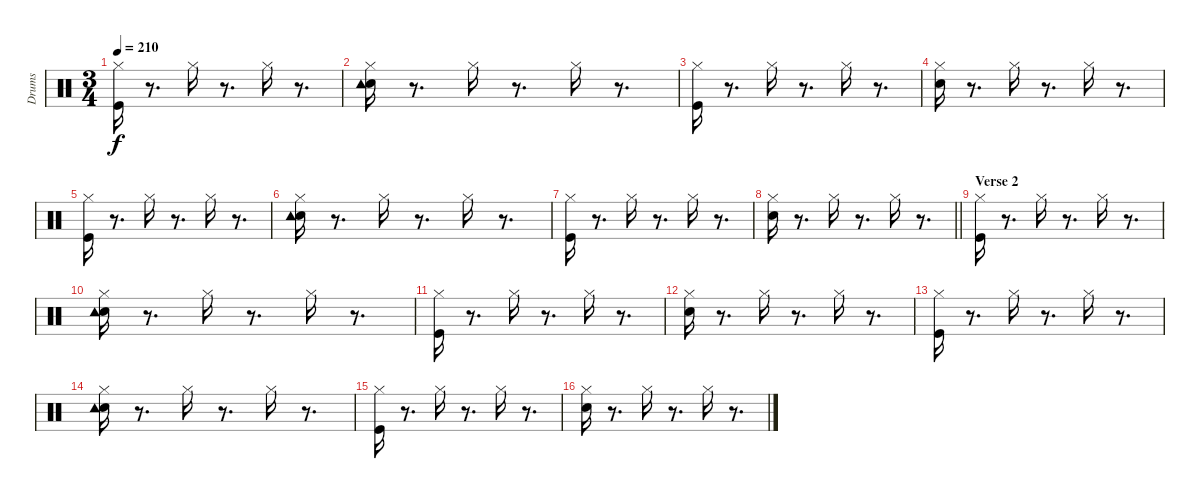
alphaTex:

\track ("Drums" "Drums") {instrument percussion}
\staff {score}
\articulation defaults
\ts (3 4)
\tempo 210
\clef neutral
\ks c
("Kick (hit)" "Hi-Hat (closed)").16{dy f} r.8{d} "Hi-Hat (closed)".16 r.8{d} "Hi-Hat (closed)".16 r.8{d} |
("Hi-Hat (closed)" "Electric Snare (hit)" "Tambourine (hit)").16 r.8{d} "Hi-Hat (closed)".16 r.8{d} "Hi-Hat (closed)".16 r.8{d} |
("Kick (hit)" "Hi-Hat (closed)").16 r.8{d} "Hi-Hat (closed)".16 r.8{d} "Hi-Hat (closed)".16 r.8{d} |
("Hi-Hat (closed)" "Electric Snare (hit)").16 r.8{d} "Hi-Hat (closed)".16 r.8{d} "Hi-Hat (closed)".16 r.8{d} |
("Kick (hit)" "Hi-Hat (closed)").16 r.8{d} "Hi-Hat (closed)".16 r.8{d} "Hi-Hat (closed)".16 r.8{d} |
("Hi-Hat (closed)" "Electric Snare (hit)" "Tambourine (hit)").16 r.8{d} "Hi-Hat (closed)".16 r.8{d} "Hi-Hat (closed)".16 r.8{d} |
("Kick (hit)" "Hi-Hat (closed)").16 r.8{d} "Hi-Hat (closed)".16 r.8{d} "Hi-Hat (closed)".16 r.8{d} |
\barLineRight lightlight
("Hi-Hat (closed)" "Electric Snare (hit)").16 r.8{d} "Hi-Hat (closed)".16 r.8{d} "Hi-Hat (closed)".16 r.8{d} |
\section ("" "Verse 2")
("Kick (hit)" "Hi-Hat (closed)").16 r.8{d} "Hi-Hat (closed)".16 r.8{d} "Hi-Hat (closed)".16 r.8{d} |
("Hi-Hat (closed)" "Electric Snare (hit)" "Tambourine (hit)").16 r.8{d} "Hi-Hat (closed)".16 r.8{d} "Hi-Hat (closed)".16 r.8{d} |
("Kick (hit)" "Hi-Hat (closed)").16 r.8{d} "Hi-Hat (closed)".16 r.8{d} "Hi-Hat (closed)".16 r.8{d} |
("Hi-Hat (closed)" "Electric Snare (hit)").16 r.8{d} "Hi-Hat (closed)".16 r.8{d} "Hi-Hat (closed)".16 r.8{d} |
("Kick (hit)" "Hi-Hat (closed)").16 r.8{d} "Hi-Hat (closed)".16 r.8{d} "Hi-Hat (closed)".16 r.8{d} |
("Hi-Hat (closed)" "Electric Snare (hit)" "Tambourine (hit)").16 r.8{d} "Hi-Hat (closed)".16 r.8{d} "Hi-Hat (closed)".16 r.8{d} |
("Kick (hit)" "Hi-Hat (closed)").16 r.8{d} "Hi-Hat (closed)".16 r.8{d} "Hi-Hat (closed)".16 r.8{d} |
("Hi-Hat (closed)" "Electric Snare (hit)").16 r.8{d} "Hi-Hat (closed)".16 r.8{d} "Hi-Hat (closed)".16 r.8{d}
